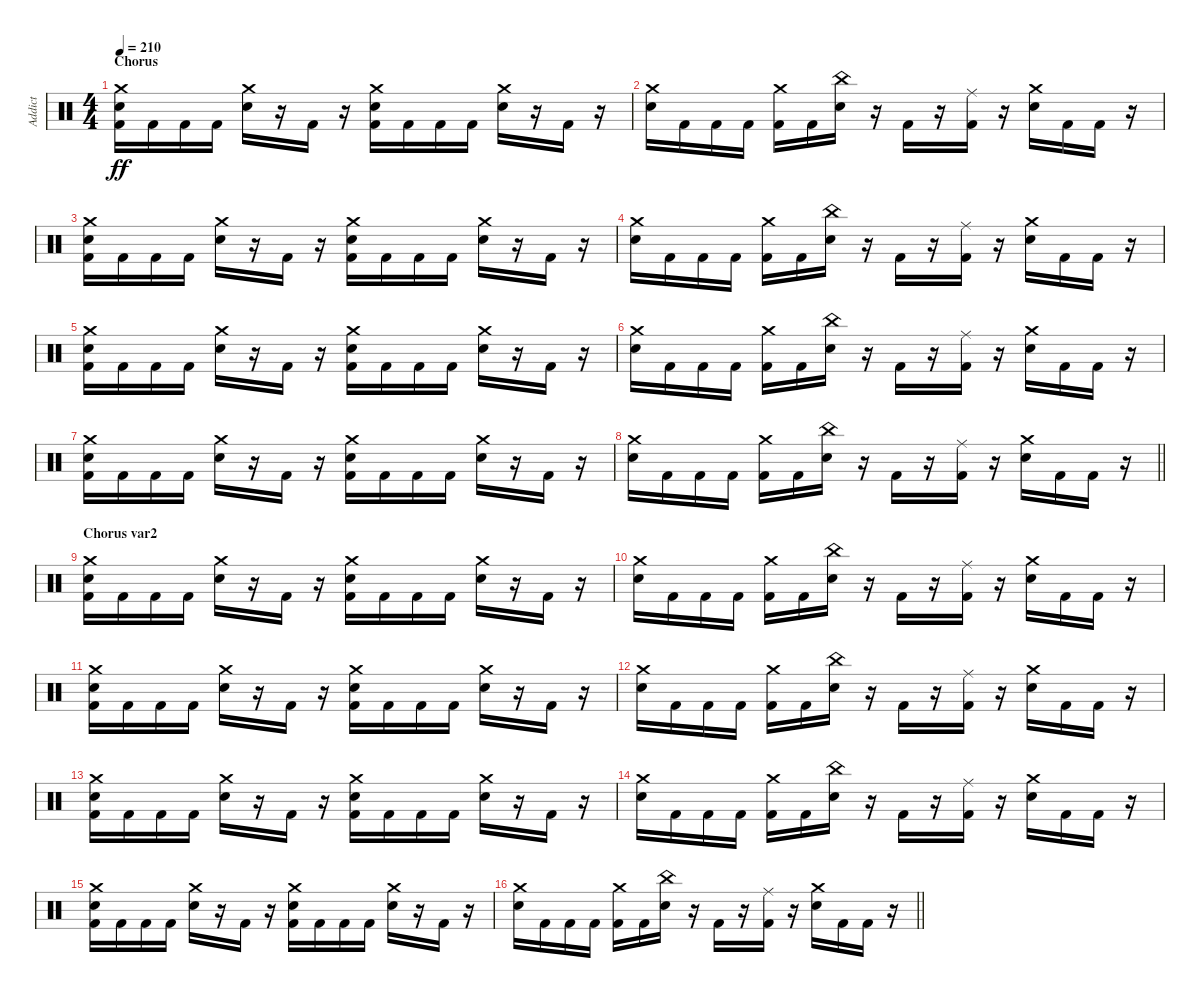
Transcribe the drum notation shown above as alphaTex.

\track ("Addict" "Addict") {instrument percussion}
\staff {score}
\articulation defaults
\ts (4 4)
\section ("" "Chorus")
\tempo 210
\clef neutral
\ks c
("Kick (hit) 2" "Snare (hit) 2" "Crash medium (hit)").16{dy ff} "Kick (hit) 2".16 "Kick (hit) 2".16 "Kick (hit) 2".16 ("Snare (hit) 2" "Crash medium (hit)").16 r.16 "Kick (hit) 2".16 r.16 ("Kick (hit) 2" "Snare (hit) 2" "Crash medium (hit)").16 "Kick (hit) 2".16 "Kick (hit) 2".16 "Kick (hit) 2".16 ("Snare (hit) 2" "Crash medium (hit)").16 r.16 "Kick (hit) 2".16 r.16 |
("Snare (hit) 2" "Crash medium (hit)").16 "Kick (hit) 2".16 "Kick (hit) 2".16 "Kick (hit) 2".16 ("Kick (hit) 2" "Crash medium (hit)").16 "Kick (hit) 2".16 ("Snare (hit) 2" "China (hit)").16 r.16 "Kick (hit) 2".16 r.16 ("Kick (hit) 2" "Ride (middle)").16 r.16 ("Snare (hit) 2" "Crash medium (hit)").16 "Kick (hit) 2".16 "Kick (hit) 2".16 r.16 |
("Kick (hit) 2" "Snare (hit) 2" "Crash medium (hit)").16 "Kick (hit) 2".16 "Kick (hit) 2".16 "Kick (hit) 2".16 ("Snare (hit) 2" "Crash medium (hit)").16 r.16 "Kick (hit) 2".16 r.16 ("Kick (hit) 2" "Snare (hit) 2" "Crash medium (hit)").16 "Kick (hit) 2".16 "Kick (hit) 2".16 "Kick (hit) 2".16 ("Snare (hit) 2" "Crash medium (hit)").16 r.16 "Kick (hit) 2".16 r.16 |
("Snare (hit) 2" "Crash medium (hit)").16 "Kick (hit) 2".16 "Kick (hit) 2".16 "Kick (hit) 2".16 ("Kick (hit) 2" "Crash medium (hit)").16 "Kick (hit) 2".16 ("Snare (hit) 2" "China (hit)").16 r.16 "Kick (hit) 2".16 r.16 ("Kick (hit) 2" "Ride (middle)").16 r.16 ("Snare (hit) 2" "Crash medium (hit)").16 "Kick (hit) 2".16 "Kick (hit) 2".16 r.16 |
("Kick (hit) 2" "Snare (hit) 2" "Crash medium (hit)").16 "Kick (hit) 2".16 "Kick (hit) 2".16 "Kick (hit) 2".16 ("Snare (hit) 2" "Crash medium (hit)").16 r.16 "Kick (hit) 2".16 r.16 ("Kick (hit) 2" "Snare (hit) 2" "Crash medium (hit)").16 "Kick (hit) 2".16 "Kick (hit) 2".16 "Kick (hit) 2".16 ("Snare (hit) 2" "Crash medium (hit)").16 r.16 "Kick (hit) 2".16 r.16 |
("Snare (hit) 2" "Crash medium (hit)").16 "Kick (hit) 2".16 "Kick (hit) 2".16 "Kick (hit) 2".16 ("Kick (hit) 2" "Crash medium (hit)").16 "Kick (hit) 2".16 ("Snare (hit) 2" "China (hit)").16 r.16 "Kick (hit) 2".16 r.16 ("Kick (hit) 2" "Ride (middle)").16 r.16 ("Snare (hit) 2" "Crash medium (hit)").16 "Kick (hit) 2".16 "Kick (hit) 2".16 r.16 |
("Kick (hit) 2" "Snare (hit) 2" "Crash medium (hit)").16 "Kick (hit) 2".16 "Kick (hit) 2".16 "Kick (hit) 2".16 ("Snare (hit) 2" "Crash medium (hit)").16 r.16 "Kick (hit) 2".16 r.16 ("Kick (hit) 2" "Snare (hit) 2" "Crash medium (hit)").16 "Kick (hit) 2".16 "Kick (hit) 2".16 "Kick (hit) 2".16 ("Snare (hit) 2" "Crash medium (hit)").16 r.16 "Kick (hit) 2".16 r.16 |
\barLineRight lightlight
("Snare (hit) 2" "Crash medium (hit)").16 "Kick (hit) 2".16 "Kick (hit) 2".16 "Kick (hit) 2".16 ("Kick (hit) 2" "Crash medium (hit)").16 "Kick (hit) 2".16 ("Snare (hit) 2" "China (hit)").16 r.16 "Kick (hit) 2".16 r.16 ("Kick (hit) 2" "Ride (middle)").16 r.16 ("Snare (hit) 2" "Crash medium (hit)").16 "Kick (hit) 2".16 "Kick (hit) 2".16 r.16 |
\section ("" "Chorus var2")
("Kick (hit) 2" "Snare (hit) 2" "Crash medium (hit)").16 "Kick (hit) 2".16 "Kick (hit) 2".16 "Kick (hit) 2".16 ("Snare (hit) 2" "Crash medium (hit)").16 r.16 "Kick (hit) 2".16 r.16 ("Kick (hit) 2" "Snare (hit) 2" "Crash medium (hit)").16 "Kick (hit) 2".16 "Kick (hit) 2".16 "Kick (hit) 2".16 ("Snare (hit) 2" "Crash medium (hit)").16 r.16 "Kick (hit) 2".16 r.16 |
("Snare (hit) 2" "Crash medium (hit)").16 "Kick (hit) 2".16 "Kick (hit) 2".16 "Kick (hit) 2".16 ("Kick (hit) 2" "Crash medium (hit)").16 "Kick (hit) 2".16 ("Snare (hit) 2" "China (hit)").16 r.16 "Kick (hit) 2".16 r.16 ("Kick (hit) 2" "Ride (middle)").16 r.16 ("Snare (hit) 2" "Crash medium (hit)").16 "Kick (hit) 2".16 "Kick (hit) 2".16 r.16 |
("Kick (hit) 2" "Snare (hit) 2" "Crash medium (hit)").16 "Kick (hit) 2".16 "Kick (hit) 2".16 "Kick (hit) 2".16 ("Snare (hit) 2" "Crash medium (hit)").16 r.16 "Kick (hit) 2".16 r.16 ("Kick (hit) 2" "Snare (hit) 2" "Crash medium (hit)").16 "Kick (hit) 2".16 "Kick (hit) 2".16 "Kick (hit) 2".16 ("Snare (hit) 2" "Crash medium (hit)").16 r.16 "Kick (hit) 2".16 r.16 |
("Snare (hit) 2" "Crash medium (hit)").16 "Kick (hit) 2".16 "Kick (hit) 2".16 "Kick (hit) 2".16 ("Kick (hit) 2" "Crash medium (hit)").16 "Kick (hit) 2".16 ("Snare (hit) 2" "China (hit)").16 r.16 "Kick (hit) 2".16 r.16 ("Kick (hit) 2" "Ride (middle)").16 r.16 ("Snare (hit) 2" "Crash medium (hit)").16 "Kick (hit) 2".16 "Kick (hit) 2".16 r.16 |
("Kick (hit) 2" "Snare (hit) 2" "Crash medium (hit)").16 "Kick (hit) 2".16 "Kick (hit) 2".16 "Kick (hit) 2".16 ("Snare (hit) 2" "Crash medium (hit)").16 r.16 "Kick (hit) 2".16 r.16 ("Kick (hit) 2" "Snare (hit) 2" "Crash medium (hit)").16 "Kick (hit) 2".16 "Kick (hit) 2".16 "Kick (hit) 2".16 ("Snare (hit) 2" "Crash medium (hit)").16 r.16 "Kick (hit) 2".16 r.16 |
("Snare (hit) 2" "Crash medium (hit)").16 "Kick (hit) 2".16 "Kick (hit) 2".16 "Kick (hit) 2".16 ("Kick (hit) 2" "Crash medium (hit)").16 "Kick (hit) 2".16 ("Snare (hit) 2" "China (hit)").16 r.16 "Kick (hit) 2".16 r.16 ("Kick (hit) 2" "Ride (middle)").16 r.16 ("Snare (hit) 2" "Crash medium (hit)").16 "Kick (hit) 2".16 "Kick (hit) 2".16 r.16 |
("Kick (hit) 2" "Snare (hit) 2" "Crash medium (hit)").16 "Kick (hit) 2".16 "Kick (hit) 2".16 "Kick (hit) 2".16 ("Snare (hit) 2" "Crash medium (hit)").16 r.16 "Kick (hit) 2".16 r.16 ("Kick (hit) 2" "Snare (hit) 2" "Crash medium (hit)").16 "Kick (hit) 2".16 "Kick (hit) 2".16 "Kick (hit) 2".16 ("Snare (hit) 2" "Crash medium (hit)").16 r.16 "Kick (hit) 2".16 r.16 |
\barLineRight lightlight
("Snare (hit) 2" "Crash medium (hit)").16 "Kick (hit) 2".16 "Kick (hit) 2".16 "Kick (hit) 2".16 ("Kick (hit) 2" "Crash medium (hit)").16 "Kick (hit) 2".16 ("Snare (hit) 2" "China (hit)").16 r.16 "Kick (hit) 2".16 r.16 ("Kick (hit) 2" "Ride (middle)").16 r.16 ("Snare (hit) 2" "Crash medium (hit)").16 "Kick (hit) 2".16 "Kick (hit) 2".16 r.16
